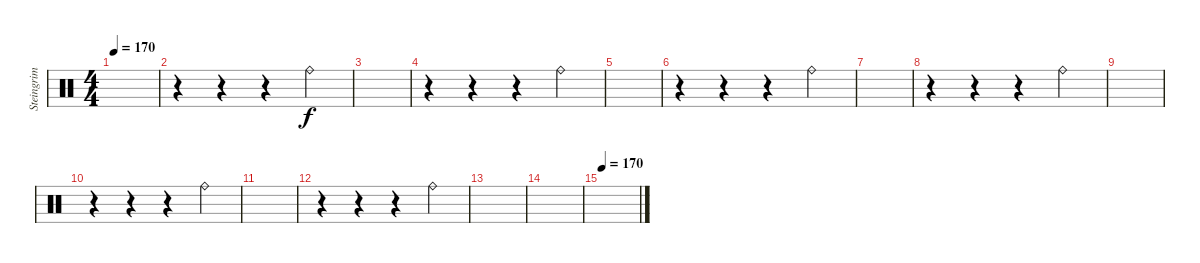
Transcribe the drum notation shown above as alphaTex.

\track ("Steingrim" "Steingrim") {instrument percussion}
\staff {score}
\articulation defaults
\ts (4 4)
\tempo 170
\clef neutral
\ks c
|
r.4 r.4 r.4 "Ride (bell)".4 |
|
r.4 r.4 r.4 "Ride (bell)".4 |
|
r.4 r.4 r.4 "Ride (bell)".4 |
|
r.4 r.4 r.4 "Ride (bell)".4 |
|
r.4 r.4 r.4 "Ride (bell)".4 |
|
r.4 r.4 r.4 "Ride (bell)".4 |
|
|
\tempo 170
